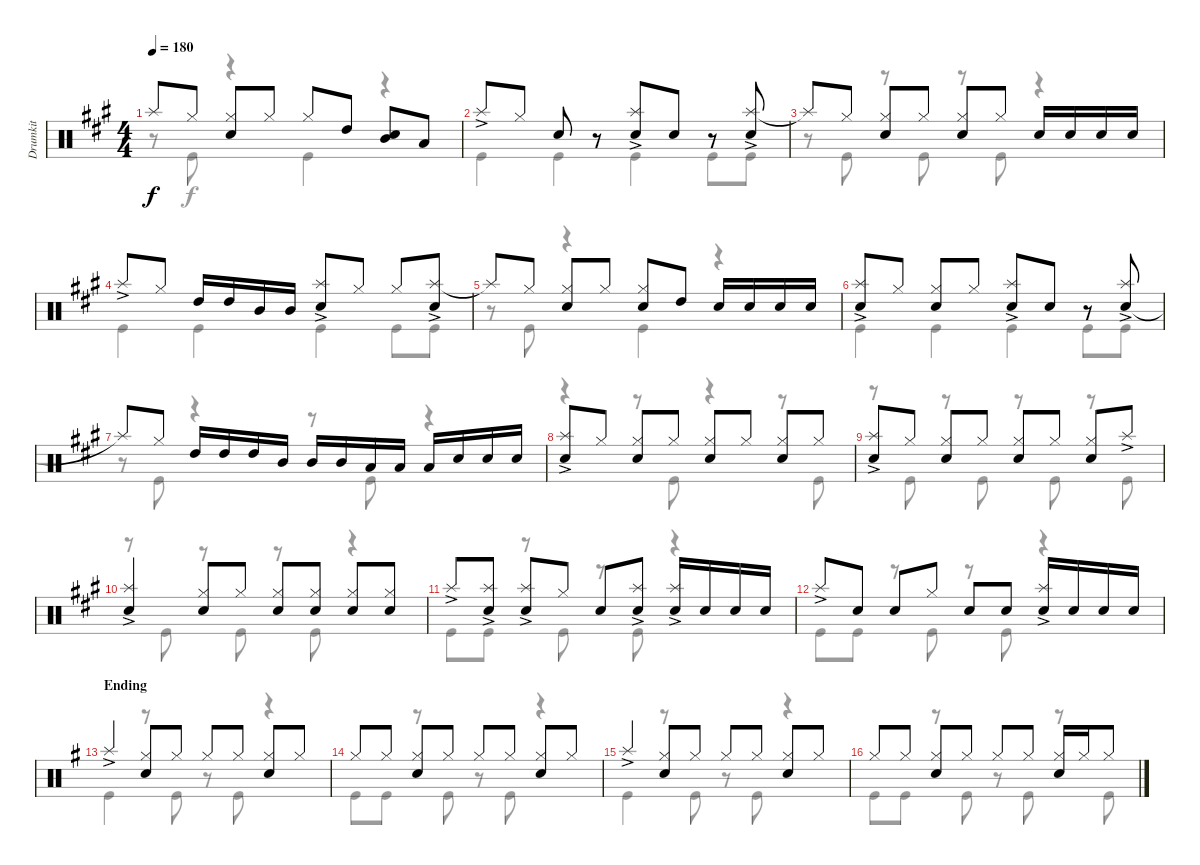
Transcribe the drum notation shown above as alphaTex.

\track ("Drumkit" "Drumkit") {instrument percussion}
\staff {score}
\articulation defaults
\voice
\ts (4 4)
\tempo 180
\clef neutral
\ks a "Splash (hit)"{t}.8{dy f} "Hi-Hat (closed)".8
("Hi-Hat (closed)" "Snare (hit) 2").8 "Hi-Hat (closed)".8 "Hi-Hat (closed)".8 "High Tom (hit)".8 ("Mid Tom (hit)" "Snare (hit) 2").8 "Low Tom (hit)".8 |
"Splash (hit)"{ac}.8 "Hi-Hat (closed)".8 "Snare (hit) 2".8 r.8 ("Snare (hit) 2" "Splash (hit)"{ac}).8 "Snare (hit) 2".8 r.8 ("Splash (hit)"{ac} "Snare (hit) 2").8 |
"Splash (hit)"{t}.8 "Hi-Hat (closed)".8 ("Hi-Hat (closed)" "Snare (hit) 2").8 "Hi-Hat (closed)".8 ("Hi-Hat (closed)" "Snare (hit) 2").8 "Hi-Hat (closed)".8 "Snare (hit) 2".16 "Snare (hit) 2".16 "Snare (hit) 2".16 "Snare (hit) 2".16 |
"Splash (hit)"{ac}.8 "Hi-Hat (closed)".8 "High Tom (hit)".16 "High Tom (hit)".16 "Mid Tom (hit)".16 "Mid Tom (hit)".16 ("Snare (hit) 2" "Splash (hit)"{ac}).8 "Hi-Hat (closed)".8 "Hi-Hat (closed)".8 ("Splash (hit)"{ac} "Snare (hit) 2").8 |
"Splash (hit)"{t}.8 "Hi-Hat (closed)".8 ("Hi-Hat (closed)" "Snare (hit) 2").8 "Hi-Hat (closed)".8 ("Hi-Hat (closed)" "Snare (hit) 2").8 "High Tom (hit)".8 "Snare (hit) 2".16 "Snare (hit) 2".16 "Snare (hit) 2".16 "Snare (hit) 2".16 |
("Snare (hit) 2" "Splash (hit)"{ac}).8 "Hi-Hat (closed)".8 ("Hi-Hat (closed)" "Snare (hit) 2").8 "Hi-Hat (closed)".8 ("Splash (hit)"{ac} "Snare (hit) 2").8 "Snare (hit) 2".8 r.8 ("Snare (hit) 2" "Splash (hit)"{ac}).8 |
"Splash (hit)"{t}.8 "Hi-Hat (closed)".8 "High Tom (hit)".16 "High Tom (hit)".16 "High Tom (hit)".16 "Mid Tom (hit)".16 "Mid Tom (hit)".16 "Mid Tom (hit)".16 "Low Tom (hit)".16 "Low Tom (hit)".16 "Low Tom (hit)".16 "Snare (hit) 2".16 "Snare (hit) 2".16 "Snare (hit) 2".16 |
("Snare (hit) 2" "Splash (hit)"{ac}).8 "Hi-Hat (closed)".8 ("Hi-Hat (closed)" "Snare (hit) 2").8 "Hi-Hat (closed)".8 ("Hi-Hat (closed)" "Snare (hit) 2").8 "Hi-Hat (closed)".8 ("Hi-Hat (closed)" "Snare (hit) 2").8 "Hi-Hat (closed)".8 |
("Splash (hit)"{ac} "Snare (hit) 2").8 "Hi-Hat (closed)".8 ("Hi-Hat (closed)" "Snare (hit) 2").8 "Hi-Hat (closed)".8 ("Hi-Hat (closed)" "Snare (hit) 2").8 "Hi-Hat (closed)".8 ("Hi-Hat (closed)" "Snare (hit) 2").8 "Splash (hit)"{ac}.8 |
("Snare (hit) 2" "Splash (hit)"{ac}).4 ("Hi-Hat (closed)" "Snare (hit) 2").8 "Hi-Hat (closed)".8 ("Hi-Hat (closed)" "Snare (hit) 2").8 ("Hi-Hat (closed)" "Snare (hit) 2").8 ("Hi-Hat (closed)" "Snare (hit) 2").8 ("Hi-Hat (closed)" "Snare (hit) 2").8 |
"Splash (hit)"{ac}.8 ("Splash (hit)"{ac} "Snare (hit) 2").8 ("Splash (hit)"{ac} "Snare (hit) 2").8 "Hi-Hat (closed)".8 "Snare (hit) 2".8 ("Snare (hit) 2" "Splash (hit)"{ac}).8 ("Splash (hit)"{ac} "Snare (hit) 2").16 "Snare (hit) 2".16 "Snare (hit) 2".16 "Snare (hit) 2".16 |
"Splash (hit)"{ac}.8 "Snare (hit) 2".8 "Snare (hit) 2".8 "Hi-Hat (closed)".8 "Snare (hit) 2".8 "Snare (hit) 2".8 ("Snare (hit) 2" "Splash (hit)"{ac}).16 "Snare (hit) 2".16 "Snare (hit) 2".16 "Snare (hit) 2".16 |
\section ("" "Ending")
\ks g "Splash (hit)"{ac}.4
("Snare (hit) 2" "Hi-Hat (closed)").8 "Hi-Hat (closed)".8 "Hi-Hat (closed)".8 "Hi-Hat (closed)".8 ("Hi-Hat (closed)" "Snare (hit) 2").8 "Hi-Hat (closed)".8 |
"Hi-Hat (closed)".8 "Hi-Hat (closed)".8 ("Hi-Hat (closed)" "Snare (hit) 2").8 "Hi-Hat (closed)".8 "Hi-Hat (closed)".8 "Hi-Hat (closed)".8 ("Hi-Hat (closed)" "Snare (hit) 2").8 "Hi-Hat (closed)".8 |
"Splash (hit)"{ac}.4 ("Snare (hit) 2" "Hi-Hat (closed)").8 "Hi-Hat (closed)".8 "Hi-Hat (closed)".8 "Hi-Hat (closed)".8 ("Hi-Hat (closed)" "Snare (hit) 2").8 "Hi-Hat (closed)".8 |
"Hi-Hat (closed)".8 "Hi-Hat (closed)".8 ("Hi-Hat (closed)" "Snare (hit) 2").8 "Hi-Hat (closed)".8 "Hi-Hat (closed)".8 "Hi-Hat (closed)".8 ("Hi-Hat (closed)" "Snare (hit) 2").16 "Hi-Hat (closed)".16 "Hi-Hat (closed)".8
\voice
\clef neutral
\ottava regular
\simile none
\ks a
r.8{dy f} "Kick (hit)".8 r.4 "Kick (hit)".4 r.4 |
"Kick (hit)".4 "Kick (hit)".4 "Kick (hit)".4 "Kick (hit)".8 "Kick (hit)".8 |
r.8 "Kick (hit)".8 r.8 "Kick (hit)".8 r.8 "Kick (hit)".8 r.4 |
"Kick (hit)".4 "Kick (hit)".4 "Kick (hit)".4 "Kick (hit)".8 "Kick (hit)".8 |
r.8 "Kick (hit)".8 r.4 "Kick (hit)".4 r.4 |
"Kick (hit)".4 "Kick (hit)".4 "Kick (hit)".4 "Kick (hit)".8 "Kick (hit)".8 |
r.8 "Kick (hit)".8 r.4 r.8 "Kick (hit)".8 r.4 |
r.4 r.8 "Kick (hit)".8 r.4 r.8 "Kick (hit)".8 |
r.8 "Kick (hit)".8 r.8 "Kick (hit)".8 r.8 "Kick (hit)".8 r.8 "Kick (hit)".8 |
r.8 "Kick (hit)".8 r.8 "Kick (hit)".8 r.8 "Kick (hit)".8 r.4 |
"Kick (hit)".8 "Kick (hit)".8 r.8 "Kick (hit)".8 r.8 "Kick (hit)".8 r.4 |
"Kick (hit)".8 "Kick (hit)".8 r.8 "Kick (hit)".8 r.8 "Kick (hit)".8 r.4 |
\ks g "Kick (hit)".4
r.8 "Kick (hit)".8 r.8 "Kick (hit)".8 r.4 |
"Kick (hit)".8 "Kick (hit)".8 r.8 "Kick (hit)".8 r.8 "Kick (hit)".8 r.4 |
"Kick (hit)".4 r.8 "Kick (hit)".8 r.8 "Kick (hit)".8 r.4 |
"Kick (hit)".8 "Kick (hit)".8 r.8 "Kick (hit)".8 r.8 "Kick (hit)".8 r.8 "Kick (hit)".8
